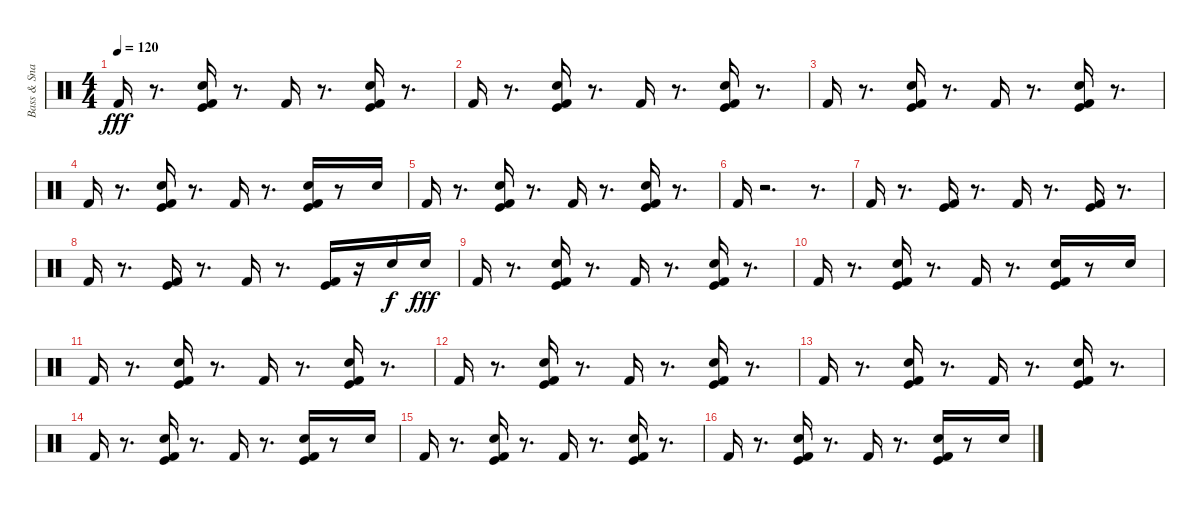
\track ("Bass & Snare Drums" "Bass & Sna") {instrument percussion}
\staff {score}
\articulation defaults
\ts (4 4)
\tempo 120
\clef neutral
\ks c "Kick (hit) 2".16{dy fff}
r.8{d} ("Electric Snare (hit)" "Kick (hit)" "Kick (hit) 2").16 r.8{d} "Kick (hit) 2".16 r.8{d} ("Electric Snare (hit)" "Kick (hit)" "Kick (hit) 2").16 r.8{d} |
"Kick (hit) 2".16 r.8{d} ("Electric Snare (hit)" "Kick (hit) 2" "Kick (hit)").16 r.8{d} "Kick (hit) 2".16 r.8{d} ("Electric Snare (hit)" "Kick (hit)" "Kick (hit) 2").16 r.8{d} |
"Kick (hit) 2".16 r.8{d} ("Electric Snare (hit)" "Kick (hit)" "Kick (hit) 2").16 r.8{d} "Kick (hit) 2".16 r.8{d} ("Electric Snare (hit)" "Kick (hit)" "Kick (hit) 2").16 r.8{d} |
"Kick (hit) 2".16 r.8{d} ("Electric Snare (hit)" "Kick (hit) 2" "Kick (hit)").16 r.8{d} "Kick (hit) 2".16 r.8{d} ("Electric Snare (hit)" "Kick (hit)" "Kick (hit) 2").16 r.8 "Electric Snare (hit)".16 |
"Kick (hit) 2".16 r.8{d} ("Electric Snare (hit)" "Kick (hit)" "Kick (hit) 2").16 r.8{d} "Kick (hit) 2".16 r.8{d} ("Electric Snare (hit)" "Kick (hit)" "Kick (hit) 2").16 r.8{d} |
"Kick (hit) 2".16 r.2{d} r.8{d} |
"Kick (hit) 2".16 r.8{d} ("Kick (hit)" "Kick (hit) 2").16 r.8{d} "Kick (hit) 2".16 r.8{d} ("Kick (hit)" "Kick (hit) 2").16 r.8{d} |
"Kick (hit) 2".16 r.8{d} ("Kick (hit)" "Kick (hit) 2").16 r.8{d} "Kick (hit) 2".16 r.8{d} ("Kick (hit)" "Kick (hit) 2").16 r.16 "Electric Snare (hit)".16{dy f} "Electric Snare (hit)".16{dy fff} |
"Kick (hit) 2".16 r.8{d} ("Electric Snare (hit)" "Kick (hit)" "Kick (hit) 2").16 r.8{d} "Kick (hit) 2".16 r.8{d} ("Electric Snare (hit)" "Kick (hit)" "Kick (hit) 2").16 r.8{d} |
"Kick (hit) 2".16 r.8{d} ("Electric Snare (hit)" "Kick (hit) 2" "Kick (hit)").16 r.8{d} "Kick (hit) 2".16 r.8{d} ("Electric Snare (hit)" "Kick (hit)" "Kick (hit) 2").16 r.8 "Electric Snare (hit)".16 |
"Kick (hit) 2".16 r.8{d} ("Electric Snare (hit)" "Kick (hit)" "Kick (hit) 2").16 r.8{d} "Kick (hit) 2".16 r.8{d} ("Electric Snare (hit)" "Kick (hit)" "Kick (hit) 2").16 r.8{d} |
"Kick (hit) 2".16 r.8{d} ("Electric Snare (hit)" "Kick (hit)" "Kick (hit) 2").16 r.8{d} "Kick (hit) 2".16 r.8{d} ("Electric Snare (hit)" "Kick (hit)" "Kick (hit) 2").16 r.8{d} |
"Kick (hit) 2".16 r.8{d} ("Electric Snare (hit)" "Kick (hit) 2" "Kick (hit)").16 r.8{d} "Kick (hit) 2".16 r.8{d} ("Electric Snare (hit)" "Kick (hit)" "Kick (hit) 2").16 r.8{d} |
"Kick (hit) 2".16 r.8{d} ("Electric Snare (hit)" "Kick (hit) 2" "Kick (hit)").16 r.8{d} "Kick (hit) 2".16 r.8{d} ("Electric Snare (hit)" "Kick (hit)" "Kick (hit) 2").16 r.8 "Electric Snare (hit)".16 |
"Kick (hit) 2".16 r.8{d} ("Electric Snare (hit)" "Kick (hit) 2" "Kick (hit)").16 r.8{d} "Kick (hit) 2".16 r.8{d} ("Electric Snare (hit)" "Kick (hit)" "Kick (hit) 2").16 r.8{d} |
"Kick (hit) 2".16 r.8{d} ("Electric Snare (hit)" "Kick (hit) 2" "Kick (hit)").16 r.8{d} "Kick (hit) 2".16 r.8{d} ("Electric Snare (hit)" "Kick (hit)" "Kick (hit) 2").16 r.8 "Electric Snare (hit)".16
